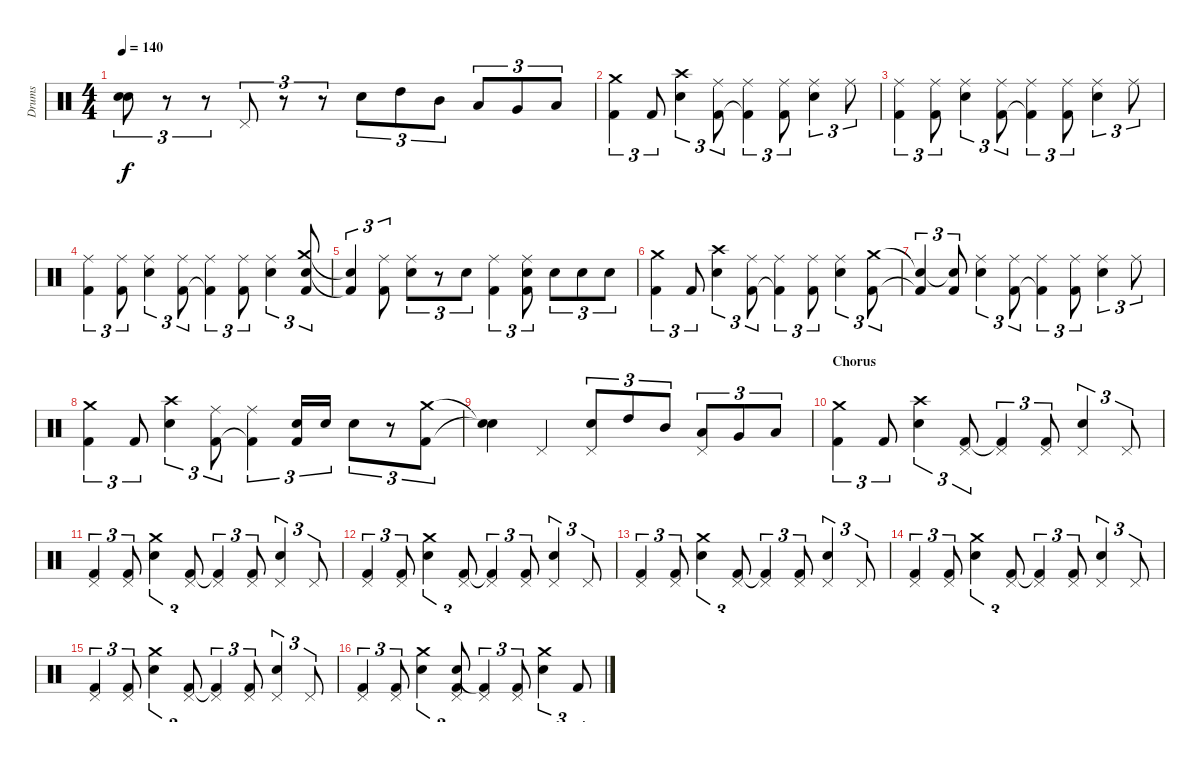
\track ("Drums" "Drums") {instrument percussion}
\staff {score}
\articulation defaults
\ts (4 4)
\tempo 140
\clef neutral
\ks c
("Snare (hit)"{t} "Snare (hit)"{t}).8{tu (3 2) dy f} r.8{tu (3 2)} r.8{tu (3 2)} "Pedal Hi-Hat (hit)".8{tu (3 2)} r.8{tu (3 2)} r.8{tu (3 2)} "Snare (hit) 2".8{tu (3 2)} "High Tom (hit)".8{tu (3 2)} "Mid Tom (hit)".8{tu (3 2)} "Low Tom (hit)".8{tu (3 2)} "Very Low Tom (hit)".8{tu (3 2)} "Low Floor Tom (hit)".8{tu (3 2)} |
("Crash medium (hit)" "Kick (hit) 2").4{tu (3 2)} "Kick (hit) 2".8{tu (3 2)} ("Crash high (hit)" "Snare (hit) 2").4{tu (3 2)} ("Ride (middle)" "Kick (hit) 2").8{tu (3 2)} ("Ride (middle)" "Kick (hit) 2"{t}).4{tu (3 2)} ("Ride (middle)" "Kick (hit) 2").8{tu (3 2)} ("Ride (middle)" "Snare (hit) 2").4{tu (3 2)} "Ride (middle)".8{tu (3 2)} |
("Ride (middle)" "Kick (hit) 2").4{tu (3 2)} ("Ride (middle)" "Kick (hit) 2").8{tu (3 2)} ("Ride (middle)" "Snare (hit) 2").4{tu (3 2)} ("Ride (middle)" "Kick (hit) 2").8{tu (3 2)} ("Ride (middle)" "Kick (hit) 2"{t}).4{tu (3 2)} ("Ride (middle)" "Kick (hit) 2").8{tu (3 2)} ("Ride (middle)" "Snare (hit) 2").4{tu (3 2)} "Ride (middle)".8{tu (3 2)} |
("Ride (middle)" "Kick (hit) 2").4{tu (3 2)} ("Ride (middle)" "Kick (hit) 2").8{tu (3 2)} ("Ride (middle)" "Snare (hit) 2").4{tu (3 2)} ("Ride (middle)" "Kick (hit) 2").8{tu (3 2)} ("Ride (middle)" "Kick (hit) 2"{t}).4{tu (3 2)} ("Ride (middle)" "Kick (hit) 2").8{tu (3 2)} ("Ride (middle)" "Snare (hit) 2").4{tu (3 2)} ("Crash medium (hit)" "Snare (hit) 2" "Kick (hit) 2").8{tu (3 2)} |
("Snare (hit)"{t} "Kick (hit) 2"{t}).4{tu (3 2)} ("Ride (middle)" "Kick (hit) 2").8{tu (3 2)} ("Ride (middle)" "Snare (hit) 2").8{tu (3 2)} r.8{tu (3 2)} "Snare (hit) 2".8{tu (3 2)} ("Ride (middle)" "Kick (hit) 2").4{tu (3 2)} ("Ride (middle)" "Snare (hit) 2" "Kick (hit) 2").8{tu (3 2)} "Snare (hit) 2".8{tu (3 2)} "Snare (hit) 2".8{tu (3 2)} "Snare (hit) 2".8{tu (3 2)} |
("Crash medium (hit)" "Kick (hit) 2").4{tu (3 2)} "Kick (hit) 2".8{tu (3 2)} ("Crash high (hit)" "Snare (hit) 2").4{tu (3 2)} ("Ride (middle)" "Kick (hit) 2").8{tu (3 2)} ("Ride (middle)" "Kick (hit) 2"{t}).4{tu (3 2)} ("Ride (middle)" "Kick (hit) 2").8{tu (3 2)} ("Ride (middle)" "Snare (hit) 2").4{tu (3 2)} ("Crash medium (hit)" "Kick (hit) 2").8{tu (3 2)} |
("Snare (hit)"{t} "Kick (hit) 2"{t}).4{tu (3 2)} ("Snare (hit)"{t} "Kick (hit) 2").8{tu (3 2)} ("Ride (middle)" "Snare (hit) 2").4{tu (3 2)} ("Ride (middle)" "Kick (hit) 2").8{tu (3 2)} ("Ride (middle)" "Kick (hit) 2"{t}).4{tu (3 2)} ("Ride (middle)" "Kick (hit) 2").8{tu (3 2)} ("Ride (middle)" "Snare (hit) 2").4{tu (3 2)} "Ride (middle)".8{tu (3 2)} |
("Crash medium (hit)" "Kick (hit) 2").4{tu (3 2)} "Kick (hit) 2".8{tu (3 2)} ("Crash high (hit)" "Snare (hit) 2").4{tu (3 2)} ("Ride (middle)" "Kick (hit) 2").8{tu (3 2)} ("Ride (middle)" "Kick (hit) 2"{t}).4{tu (3 2)} ("Snare (hit) 2" "Kick (hit) 2").16{tu (3 2)} "Snare (hit) 2".16{tu (3 2)} "Snare (hit) 2".8{tu (3 2)} r.8{tu (3 2)} ("Crash medium (hit)" "Kick (hit) 2").8{tu (3 2)} |
("Snare (hit)"{t} "Snare (hit)"{t}).4 "Pedal Hi-Hat (hit)".4 ("Pedal Hi-Hat (hit)" "Snare (hit) 2").8{tu (3 2)} "High Tom (hit)".8{tu (3 2)} "Mid Tom (hit)".8{tu (3 2)} ("Pedal Hi-Hat (hit)" "Low Tom (hit)").8{tu (3 2)} "Very Low Tom (hit)".8{tu (3 2)} "Low Floor Tom (hit)".8{tu (3 2)} |
\section ("" "Chorus")
("Crash medium (hit)" "Kick (hit) 2").4{tu (3 2)} "Kick (hit) 2".8{tu (3 2)} ("Crash high (hit)" "Snare (hit) 2").4{tu (3 2)} ("Pedal Hi-Hat (hit)" "Kick (hit) 2").8{tu (3 2)} ("Pedal Hi-Hat (hit)" "Kick (hit) 2"{t}).4{tu (3 2)} ("Pedal Hi-Hat (hit)" "Kick (hit) 2").8{tu (3 2)} ("Pedal Hi-Hat (hit)" "Snare (hit) 2").4{tu (3 2)} "Pedal Hi-Hat (hit)".8{tu (3 2)} |
("Pedal Hi-Hat (hit)" "Kick (hit) 2").4{tu (3 2)} ("Pedal Hi-Hat (hit)" "Kick (hit) 2").8{tu (3 2)} ("Crash medium (hit)" "Snare (hit) 2").4{tu (3 2)} ("Pedal Hi-Hat (hit)" "Kick (hit) 2").8{tu (3 2)} ("Pedal Hi-Hat (hit)" "Kick (hit) 2"{t}).4{tu (3 2)} ("Pedal Hi-Hat (hit)" "Kick (hit) 2").8{tu (3 2)} ("Pedal Hi-Hat (hit)" "Snare (hit) 2").4{tu (3 2)} "Pedal Hi-Hat (hit)".8{tu (3 2)} |
("Pedal Hi-Hat (hit)" "Kick (hit) 2").4{tu (3 2)} ("Pedal Hi-Hat (hit)" "Kick (hit) 2").8{tu (3 2)} ("Crash medium (hit)" "Snare (hit) 2").4{tu (3 2)} ("Pedal Hi-Hat (hit)" "Kick (hit) 2").8{tu (3 2)} ("Pedal Hi-Hat (hit)" "Kick (hit) 2"{t}).4{tu (3 2)} ("Pedal Hi-Hat (hit)" "Kick (hit) 2").8{tu (3 2)} ("Pedal Hi-Hat (hit)" "Snare (hit) 2").4{tu (3 2)} "Pedal Hi-Hat (hit)".8{tu (3 2)} |
("Pedal Hi-Hat (hit)" "Kick (hit) 2").4{tu (3 2)} ("Pedal Hi-Hat (hit)" "Kick (hit) 2").8{tu (3 2)} ("Crash medium (hit)" "Snare (hit) 2").4{tu (3 2)} ("Pedal Hi-Hat (hit)" "Kick (hit) 2").8{tu (3 2)} ("Pedal Hi-Hat (hit)" "Kick (hit) 2"{t}).4{tu (3 2)} ("Pedal Hi-Hat (hit)" "Kick (hit) 2").8{tu (3 2)} ("Pedal Hi-Hat (hit)" "Snare (hit) 2").4{tu (3 2)} "Pedal Hi-Hat (hit)".8{tu (3 2)} |
("Pedal Hi-Hat (hit)" "Kick (hit) 2").4{tu (3 2)} ("Pedal Hi-Hat (hit)" "Kick (hit) 2").8{tu (3 2)} ("Crash medium (hit)" "Snare (hit) 2").4{tu (3 2)} ("Pedal Hi-Hat (hit)" "Kick (hit) 2").8{tu (3 2)} ("Pedal Hi-Hat (hit)" "Kick (hit) 2"{t}).4{tu (3 2)} ("Pedal Hi-Hat (hit)" "Kick (hit) 2").8{tu (3 2)} ("Pedal Hi-Hat (hit)" "Snare (hit) 2").4{tu (3 2)} "Pedal Hi-Hat (hit)".8{tu (3 2)} |
("Pedal Hi-Hat (hit)" "Kick (hit) 2").4{tu (3 2)} ("Pedal Hi-Hat (hit)" "Kick (hit) 2").8{tu (3 2)} ("Crash medium (hit)" "Snare (hit) 2").4{tu (3 2)} ("Pedal Hi-Hat (hit)" "Kick (hit) 2").8{tu (3 2)} ("Pedal Hi-Hat (hit)" "Kick (hit) 2"{t}).4{tu (3 2)} ("Pedal Hi-Hat (hit)" "Kick (hit) 2").8{tu (3 2)} ("Pedal Hi-Hat (hit)" "Snare (hit) 2").4{tu (3 2)} "Pedal Hi-Hat (hit)".8{tu (3 2)} |
("Pedal Hi-Hat (hit)" "Kick (hit) 2").4{tu (3 2)} ("Pedal Hi-Hat (hit)" "Kick (hit) 2").8{tu (3 2)} ("Crash medium (hit)" "Snare (hit) 2").4{tu (3 2)} ("Pedal Hi-Hat (hit)" "Snare (hit) 2" "Kick (hit) 2").8{tu (3 2)} ("Pedal Hi-Hat (hit)" "Kick (hit) 2"{t}).4{tu (3 2)} ("Pedal Hi-Hat (hit)" "Kick (hit) 2").8{tu (3 2)} ("Crash medium (hit)" "Snare (hit) 2").4{tu (3 2)} "Kick (hit) 2".8{tu (3 2)}
